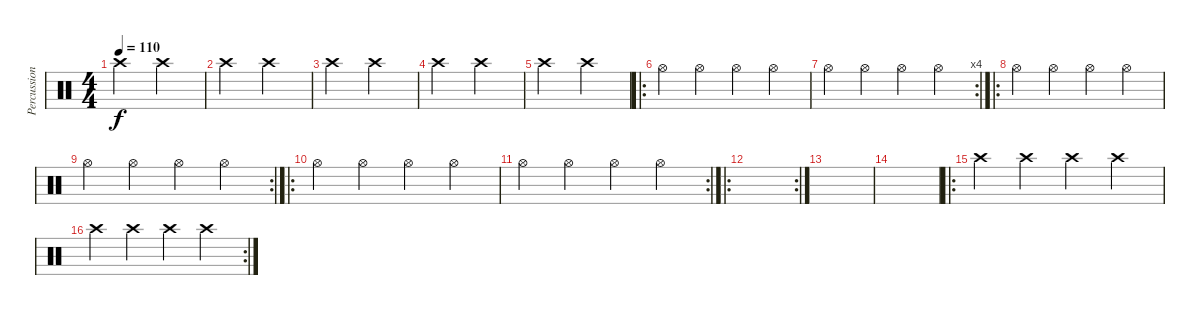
\track ("Percussions" "Percussion") {instrument percussion}
\staff {score}
\articulation defaults
\ts (4 4)
\tempo 110
\clef neutral
\ks c "Crash high (hit)".2{dy f} "Crash high (hit)".2
|
"Crash high (hit)".2 "Crash high (hit)".2 |
"Crash high (hit)".2 "Crash high (hit)".2 |
"Crash high (hit)".2 "Crash high (hit)".2 |
"Crash high (hit)".2 "Crash high (hit)".2 |
\ro "Hi-Hat (open)".4 "Hi-Hat (open)".4 "Hi-Hat (open)".4 "Hi-Hat (open)".4
|
\rc 4 "Hi-Hat (open)".4 "Hi-Hat (open)".4 "Hi-Hat (open)".4 "Hi-Hat (open)".4
|
\ro "Hi-Hat (open)".4 "Hi-Hat (open)".4 "Hi-Hat (open)".4 "Hi-Hat (open)".4
|
\rc 2 "Hi-Hat (open)".4 "Hi-Hat (open)".4 "Hi-Hat (open)".4 "Hi-Hat (open)".4
|
\ro "Hi-Hat (open)".4 "Hi-Hat (open)".4 "Hi-Hat (open)".4 "Hi-Hat (open)".4
|
\rc 2 "Hi-Hat (open)".4 "Hi-Hat (open)".4 "Hi-Hat (open)".4 "Hi-Hat (open)".4
|
\ro
\rc 2
|
|
|
\ro "Crash high (hit)".4 "Crash high (hit)".4 "Crash high (hit)".4 "Crash high (hit)".4
|
\rc 2 "Crash high (hit)".4 "Crash high (hit)".4 "Crash high (hit)".4 "Crash high (hit)".4
